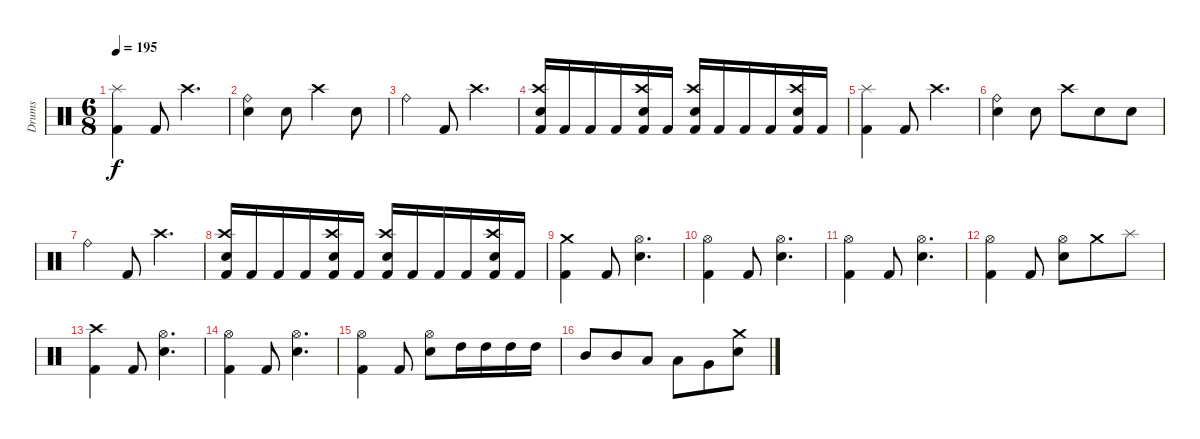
\track ("Drums" "Drums") {instrument percussion}
\staff {score}
\articulation defaults
\ts (6 8)
\tempo 195
\clef neutral
\ks c
("Splash (hit)" "Kick (hit) 2").4{dy f} "Kick (hit) 2".8 "Crash high (hit)".4{d} |
("Ride (bell)" "Electric Snare (hit)").4 "Electric Snare (hit)".8 "Crash high (hit)".4 "Electric Snare (hit)".8 |
"Ride (bell)".4 "Kick (hit) 2".8 "Crash high (hit)".4{d} |
("Crash high (hit)" "Electric Snare (hit)" "Kick (hit) 2").16 "Kick (hit) 2".16 "Kick (hit) 2".16 "Kick (hit) 2".16 ("Crash high (hit)" "Electric Snare (hit)" "Kick (hit) 2").16 "Kick (hit) 2".16 ("Crash high (hit)" "Electric Snare (hit)" "Kick (hit) 2").16 "Kick (hit) 2".16 "Kick (hit) 2".16 "Kick (hit) 2".16 ("Crash high (hit)" "Electric Snare (hit)" "Kick (hit) 2").16 "Kick (hit) 2".16 |
("Splash (hit)" "Kick (hit) 2").4 "Kick (hit) 2".8 "Crash high (hit)".4{d} |
("Ride (bell)" "Electric Snare (hit)").4 "Electric Snare (hit)".8 "Crash high (hit)".8 "Electric Snare (hit)".8 "Electric Snare (hit)".8 |
"Ride (bell)".4 "Kick (hit) 2".8 "Crash high (hit)".4{d} |
("Crash high (hit)" "Electric Snare (hit)" "Kick (hit) 2").16 "Kick (hit) 2".16 "Kick (hit) 2".16 "Kick (hit) 2".16 ("Crash high (hit)" "Electric Snare (hit)" "Kick (hit) 2").16 "Kick (hit) 2".16 ("Crash high (hit)" "Electric Snare (hit)" "Kick (hit) 2").16 "Kick (hit) 2".16 "Kick (hit) 2".16 "Kick (hit) 2".16 ("Crash high (hit)" "Electric Snare (hit)" "Kick (hit) 2").16 "Kick (hit) 2".16 |
("Crash medium (hit)" "Kick (hit) 2").4 "Kick (hit) 2".8 ("Hi-Hat (open)" "Electric Snare (hit)").4{d} |
("Hi-Hat (open)" "Kick (hit) 2").4 "Kick (hit) 2".8 ("Hi-Hat (open)" "Electric Snare (hit)").4{d} |
("Hi-Hat (open)" "Kick (hit) 2").4 "Kick (hit) 2".8 ("Hi-Hat (open)" "Electric Snare (hit)").4{d} |
("Hi-Hat (open)" "Kick (hit) 2").4 "Kick (hit) 2".8 ("Hi-Hat (open)" "Electric Snare (hit)").8 "Crash medium (hit)".8 "Splash (hit)".8 |
("Crash high (hit)" "Kick (hit) 2").4 "Kick (hit) 2".8 ("Hi-Hat (open)" "Electric Snare (hit)").4{d} |
("Hi-Hat (open)" "Kick (hit) 2").4 "Kick (hit) 2".8 ("Hi-Hat (open)" "Electric Snare (hit)").4{d} |
("Hi-Hat (open)" "Kick (hit) 2").4 "Kick (hit) 2".8 ("Hi-Hat (open)" "Electric Snare (hit)").8 "High Tom (hit)".16 "High Tom (hit)".16 "High Tom (hit)".16 "High Tom (hit)".16 |
"Mid Tom (hit)".8 "Mid Tom (hit)".8 "Low Tom (hit)".8 "Low Tom (hit)".8 "Very Low Tom (hit)".8 ("Crash medium (hit)" "Electric Snare (hit)").8
